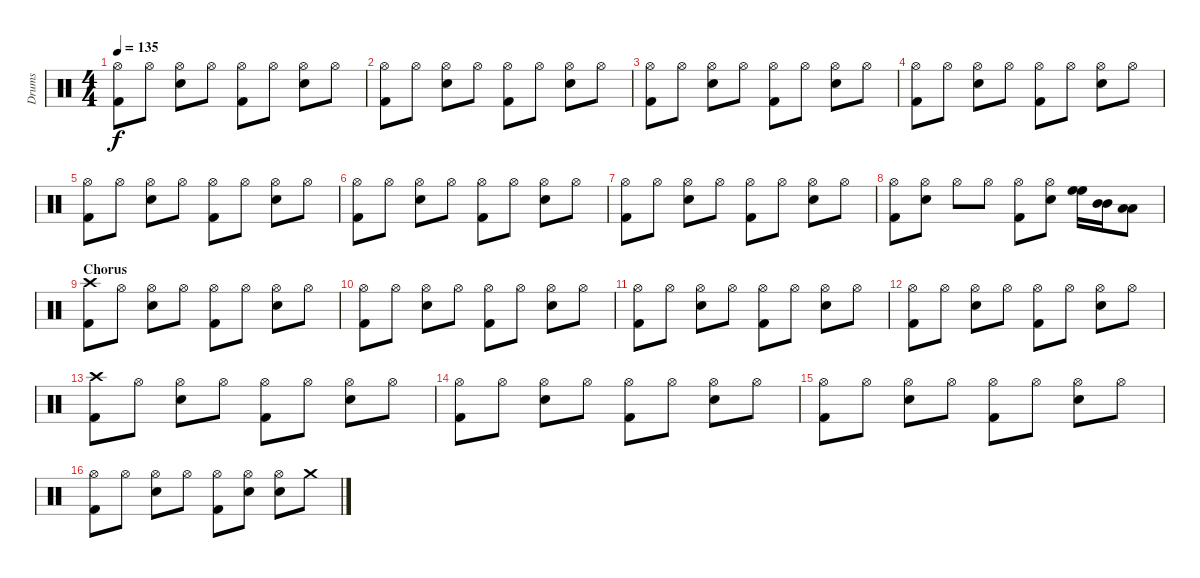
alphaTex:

\track ("Drums" "Drums") {instrument percussion}
\staff {score}
\articulation defaults
\ts (4 4)
\tempo 135
\clef neutral
\ks c
("Hi-Hat (open)" "Kick (hit) 2").8{dy f} "Hi-Hat (open)".8 ("Hi-Hat (open)" "Snare (hit) 2").8 "Hi-Hat (open)".8 ("Hi-Hat (open)" "Kick (hit) 2").8 "Hi-Hat (open)".8 ("Hi-Hat (open)" "Snare (hit) 2").8 "Hi-Hat (open)".8 |
("Hi-Hat (open)" "Kick (hit) 2").8 "Hi-Hat (open)".8 ("Hi-Hat (open)" "Snare (hit) 2").8 "Hi-Hat (open)".8 ("Hi-Hat (open)" "Kick (hit) 2").8 "Hi-Hat (open)".8 ("Hi-Hat (open)" "Snare (hit) 2").8 "Hi-Hat (open)".8 |
("Hi-Hat (open)" "Kick (hit) 2").8 "Hi-Hat (open)".8 ("Hi-Hat (open)" "Snare (hit) 2").8 "Hi-Hat (open)".8 ("Hi-Hat (open)" "Kick (hit) 2").8 "Hi-Hat (open)".8 ("Hi-Hat (open)" "Snare (hit) 2").8 "Hi-Hat (open)".8 |
("Hi-Hat (open)" "Kick (hit) 2").8 "Hi-Hat (open)".8 ("Hi-Hat (open)" "Snare (hit) 2").8 "Hi-Hat (open)".8 ("Hi-Hat (open)" "Kick (hit) 2").8 "Hi-Hat (open)".8 ("Hi-Hat (open)" "Snare (hit) 2").8 "Hi-Hat (open)".8 |
("Hi-Hat (open)" "Kick (hit) 2").8 "Hi-Hat (open)".8 ("Hi-Hat (open)" "Snare (hit) 2").8 "Hi-Hat (open)".8 ("Hi-Hat (open)" "Kick (hit) 2").8 "Hi-Hat (open)".8 ("Hi-Hat (open)" "Snare (hit) 2").8 "Hi-Hat (open)".8 |
("Hi-Hat (open)" "Kick (hit) 2").8 "Hi-Hat (open)".8 ("Hi-Hat (open)" "Snare (hit) 2").8 "Hi-Hat (open)".8 ("Hi-Hat (open)" "Kick (hit) 2").8 "Hi-Hat (open)".8 ("Hi-Hat (open)" "Snare (hit) 2").8 "Hi-Hat (open)".8 |
("Hi-Hat (open)" "Kick (hit) 2").8 "Hi-Hat (open)".8 ("Hi-Hat (open)" "Snare (hit) 2").8 "Hi-Hat (open)".8 ("Hi-Hat (open)" "Kick (hit) 2").8 "Hi-Hat (open)".8 ("Hi-Hat (open)" "Snare (hit) 2").8 "Hi-Hat (open)".8 |
("Hi-Hat (open)" "Kick (hit) 2").8 ("Hi-Hat (open)" "Snare (hit) 2").8 "Hi-Hat (open)".8 "Hi-Hat (open)".8 ("Hi-Hat (open)" "Kick (hit) 2").8 ("Hi-Hat (open)" "Snare (hit) 2").8 ("High Floor Tom (hit)" "High Floor Tom (hit)").16 ("Mid Tom (hit)" "Mid Tom (hit)").16 ("Low Tom (hit)" "Low Tom (hit)").8 |
\section ("" "Chorus")
("Crash high (hit)" "Kick (hit) 2").8 "Hi-Hat (open)".8 ("Hi-Hat (open)" "Snare (hit) 2").8 "Hi-Hat (open)".8 ("Hi-Hat (open)" "Kick (hit) 2").8 "Hi-Hat (open)".8 ("Hi-Hat (open)" "Snare (hit) 2").8 "Hi-Hat (open)".8 |
("Hi-Hat (open)" "Kick (hit) 2").8 "Hi-Hat (open)".8 ("Hi-Hat (open)" "Snare (hit) 2").8 "Hi-Hat (open)".8 ("Hi-Hat (open)" "Kick (hit) 2").8 "Hi-Hat (open)".8 ("Hi-Hat (open)" "Snare (hit) 2").8 "Hi-Hat (open)".8 |
("Hi-Hat (open)" "Kick (hit) 2").8 "Hi-Hat (open)".8 ("Hi-Hat (open)" "Snare (hit) 2").8 "Hi-Hat (open)".8 ("Hi-Hat (open)" "Kick (hit) 2").8 "Hi-Hat (open)".8 ("Hi-Hat (open)" "Snare (hit) 2").8 "Hi-Hat (open)".8 |
("Hi-Hat (open)" "Kick (hit) 2").8 "Hi-Hat (open)".8 ("Hi-Hat (open)" "Snare (hit) 2").8 "Hi-Hat (open)".8 ("Hi-Hat (open)" "Kick (hit) 2").8 "Hi-Hat (open)".8 ("Hi-Hat (open)" "Snare (hit) 2").8 "Hi-Hat (open)".8 |
("Crash high (hit)" "Kick (hit) 2").8 "Hi-Hat (open)".8 ("Hi-Hat (open)" "Snare (hit) 2").8 "Hi-Hat (open)".8 ("Hi-Hat (open)" "Kick (hit) 2").8 "Hi-Hat (open)".8 ("Hi-Hat (open)" "Snare (hit) 2").8 "Hi-Hat (open)".8 |
("Hi-Hat (open)" "Kick (hit) 2").8 "Hi-Hat (open)".8 ("Hi-Hat (open)" "Snare (hit) 2").8 "Hi-Hat (open)".8 ("Hi-Hat (open)" "Kick (hit) 2").8 "Hi-Hat (open)".8 ("Hi-Hat (open)" "Snare (hit) 2").8 "Hi-Hat (open)".8 |
("Hi-Hat (open)" "Kick (hit) 2").8 "Hi-Hat (open)".8 ("Hi-Hat (open)" "Snare (hit) 2").8 "Hi-Hat (open)".8 ("Hi-Hat (open)" "Kick (hit) 2").8 "Hi-Hat (open)".8 ("Hi-Hat (open)" "Snare (hit) 2").8 "Hi-Hat (open)".8 |
("Hi-Hat (open)" "Kick (hit) 2").8 "Hi-Hat (open)".8 ("Hi-Hat (open)" "Snare (hit) 2").8 "Hi-Hat (open)".8 ("Hi-Hat (open)" "Kick (hit) 2").8 ("Hi-Hat (open)" "Snare (hit) 2").8 ("Hi-Hat (open)" "Snare (hit) 2").8 "Crash medium (hit)".8
